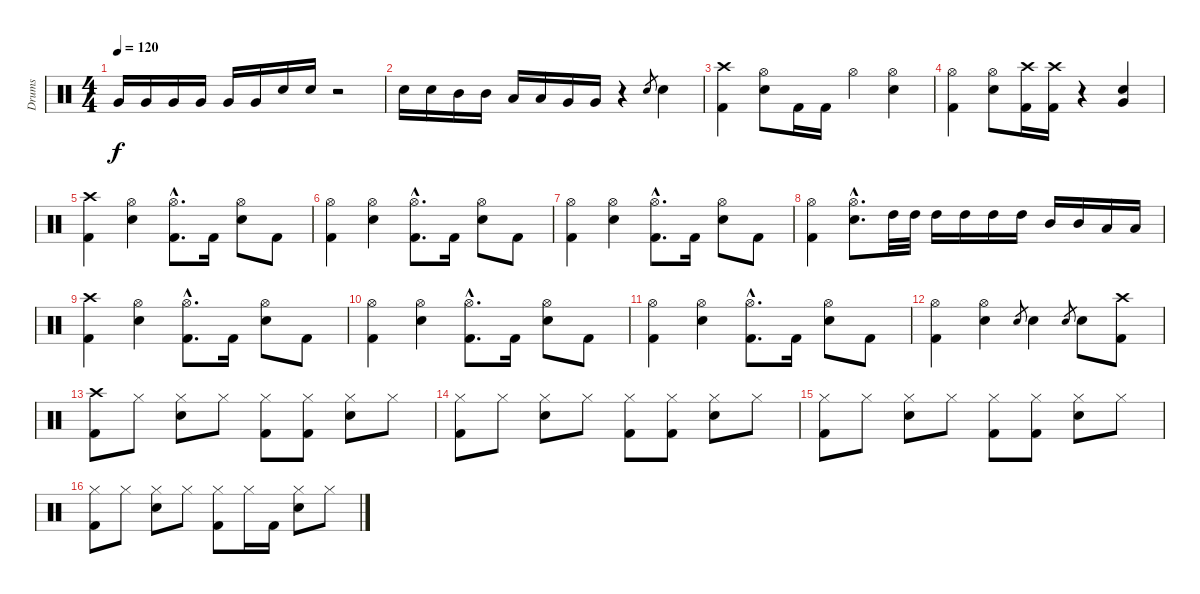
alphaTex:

\track ("Drums" "Drums") {instrument percussion}
\staff {score}
\articulation defaults
\ts (4 4)
\tempo 120
\clef neutral
\ks c "Very Low Tom (hit)".16{dy f} "Very Low Tom (hit)".16 "Very Low Tom (hit)".16 "Very Low Tom (hit)".16 "Very Low Tom (hit)".16 "Very Low Tom (hit)".16 "Electric Snare (hit)".16 "Electric Snare (hit)".16
r.2 |
"Electric Snare (hit)".16 "Electric Snare (hit)".16 "Mid Tom (hit)".16 "Mid Tom (hit)".16 "Low Tom (hit)".16 "Low Tom (hit)".16 "Very Low Tom (hit)".16 "Very Low Tom (hit)".16 r.4 "Electric Snare (hit)".8{gr} "Electric Snare (hit)".4 |
("Crash high (hit)" "Kick (hit) 2").4 ("Hi-Hat (open)" "Electric Snare (hit)").8 "Kick (hit) 2".16 "Kick (hit) 2".16 "Hi-Hat (open)".4 ("Hi-Hat (open)" "Electric Snare (hit)").4 |
("Hi-Hat (open)" "Kick (hit) 2").4 ("Hi-Hat (open)" "Electric Snare (hit)").8 ("Crash high (hit)" "Kick (hit) 2").16 ("Crash high (hit)" "Kick (hit) 2").16 r.4 ("Electric Snare (hit)" "Very Low Tom (hit)").4 |
("Crash high (hit)" "Kick (hit) 2").4 ("Hi-Hat (open)" "Electric Snare (hit)").4 ("Hi-Hat (open)"{hac} "Kick (hit) 2"{hac}).8{d} "Kick (hit) 2".16 ("Hi-Hat (open)" "Electric Snare (hit)").8 "Kick (hit) 2".8 |
("Hi-Hat (open)" "Kick (hit) 2").4 ("Hi-Hat (open)" "Electric Snare (hit)").4 ("Hi-Hat (open)"{hac} "Kick (hit) 2"{hac}).8{d} "Kick (hit) 2".16 ("Hi-Hat (open)" "Electric Snare (hit)").8 "Kick (hit) 2".8 |
("Hi-Hat (open)" "Kick (hit) 2").4 ("Hi-Hat (open)" "Electric Snare (hit)").4 ("Hi-Hat (open)"{hac} "Kick (hit) 2"{hac}).8{d} "Kick (hit) 2".16 ("Hi-Hat (open)" "Electric Snare (hit)").8 "Kick (hit) 2".8 |
("Hi-Hat (open)" "Kick (hit) 2").4 ("Hi-Hat (open)"{hac} "Electric Snare (hit)"{hac}).8{d} "High Tom (hit)".32 "High Tom (hit)".32 "High Tom (hit)".16 "High Tom (hit)".16 "High Tom (hit)".16 "High Tom (hit)".16 "Mid Tom (hit)".16 "Mid Tom (hit)".16 "Low Tom (hit)".16 "Low Tom (hit)".16 |
("Crash high (hit)" "Kick (hit) 2").4 ("Hi-Hat (open)" "Electric Snare (hit)").4 ("Hi-Hat (open)"{hac} "Kick (hit) 2"{hac}).8{d} "Kick (hit) 2".16 ("Hi-Hat (open)" "Electric Snare (hit)").8 "Kick (hit) 2".8 |
("Hi-Hat (open)" "Kick (hit) 2").4 ("Hi-Hat (open)" "Electric Snare (hit)").4 ("Hi-Hat (open)"{hac} "Kick (hit) 2"{hac}).8{d} "Kick (hit) 2".16 ("Hi-Hat (open)" "Electric Snare (hit)").8 "Kick (hit) 2".8 |
("Hi-Hat (open)" "Kick (hit) 2").4 ("Hi-Hat (open)" "Electric Snare (hit)").4 ("Hi-Hat (open)"{hac} "Kick (hit) 2"{hac}).8{d} "Kick (hit) 2".16 ("Hi-Hat (open)" "Electric Snare (hit)").8 "Kick (hit) 2".8 |
("Hi-Hat (open)" "Kick (hit) 2").4 ("Hi-Hat (open)" "Electric Snare (hit)").4 "Electric Snare (hit)".8{gr} "Electric Snare (hit)".4 "Electric Snare (hit)".8{gr} "Electric Snare (hit)".8 ("Crash high (hit)" "Kick (hit) 2").8 |
("Crash high (hit)" "Kick (hit) 2").8 "Hi-Hat (closed)".8 ("Hi-Hat (closed)" "Electric Snare (hit)").8 "Hi-Hat (closed)".8 ("Hi-Hat (closed)" "Kick (hit) 2").8 ("Hi-Hat (closed)" "Kick (hit) 2").8 ("Hi-Hat (closed)" "Electric Snare (hit)").8 "Hi-Hat (closed)".8 |
("Hi-Hat (closed)" "Kick (hit) 2").8 "Hi-Hat (closed)".8 ("Hi-Hat (closed)" "Electric Snare (hit)").8 "Hi-Hat (closed)".8 ("Hi-Hat (closed)" "Kick (hit) 2").8 ("Hi-Hat (closed)" "Kick (hit) 2").8 ("Hi-Hat (closed)" "Electric Snare (hit)").8 "Hi-Hat (closed)".8 |
("Hi-Hat (closed)" "Kick (hit) 2").8 "Hi-Hat (closed)".8 ("Hi-Hat (closed)" "Electric Snare (hit)").8 "Hi-Hat (closed)".8 ("Hi-Hat (closed)" "Kick (hit) 2").8 ("Hi-Hat (closed)" "Kick (hit) 2").8 ("Hi-Hat (closed)" "Electric Snare (hit)").8 "Hi-Hat (closed)".8 |
("Hi-Hat (closed)" "Kick (hit) 2").8 "Hi-Hat (closed)".8 ("Hi-Hat (closed)" "Electric Snare (hit)").8 "Hi-Hat (closed)".8 ("Hi-Hat (closed)" "Kick (hit) 2").8 "Hi-Hat (closed)".16 "Kick (hit) 2".16 ("Hi-Hat (closed)" "Electric Snare (hit)").8 "Hi-Hat (closed)".8
